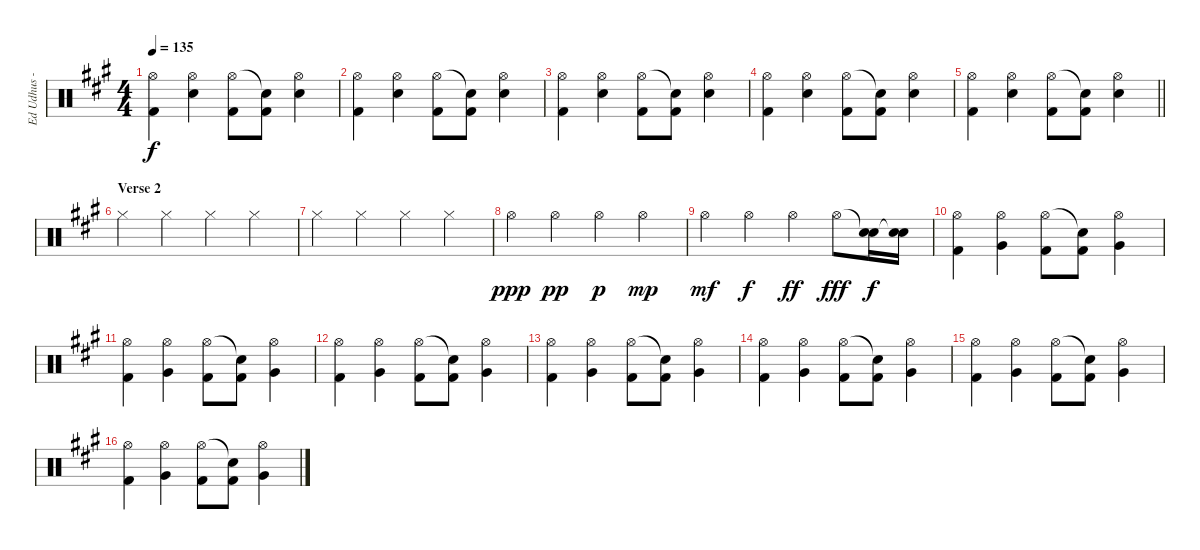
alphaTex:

\track ("Ed Udhus - Drums" "Ed Udhus -") {instrument percussion bank 127}
\staff {score}
\articulation defaults
\ts (4 4)
\tempo 135
\clef neutral
\ks a
("Hi-Hat (open)" "Kick (hit) 2").4{dy f} ("Hi-Hat (open)" "Snare (hit) 2").4 ("Hi-Hat (open)" "Kick (hit) 2").8 ("Snare (hit)"{t} "Kick (hit) 2").8 ("Hi-Hat (open)" "Snare (hit) 2").4 |
("Hi-Hat (open)" "Kick (hit) 2").4 ("Hi-Hat (open)" "Snare (hit) 2").4 ("Hi-Hat (open)" "Kick (hit) 2").8 ("Snare (hit)"{t} "Kick (hit) 2").8 ("Hi-Hat (open)" "Snare (hit) 2").4 |
("Hi-Hat (open)" "Kick (hit) 2").4 ("Hi-Hat (open)" "Snare (hit) 2").4 ("Hi-Hat (open)" "Kick (hit) 2").8 ("Snare (hit)"{t} "Kick (hit) 2").8 ("Hi-Hat (open)" "Snare (hit) 2").4 |
("Hi-Hat (open)" "Kick (hit) 2").4 ("Hi-Hat (open)" "Snare (hit) 2").4 ("Hi-Hat (open)" "Kick (hit) 2").8 ("Snare (hit)"{t} "Kick (hit) 2").8 ("Hi-Hat (open)" "Snare (hit) 2").4 |
\barLineRight lightlight
("Hi-Hat (open)" "Kick (hit) 2").4 ("Hi-Hat (open)" "Snare (hit) 2").4 ("Hi-Hat (open)" "Kick (hit) 2").8 ("Snare (hit)"{t} "Kick (hit) 2").8 ("Hi-Hat (open)" "Snare (hit) 2").4 |
\section ("" "Verse 2")
"Hi-Hat (closed)".4 "Hi-Hat (closed)".4 "Hi-Hat (closed)".4 "Hi-Hat (closed)".4 |
"Hi-Hat (closed)".4 "Hi-Hat (closed)".4 "Hi-Hat (closed)".4 "Hi-Hat (closed)".4 |
"Hi-Hat (open)".4{dy ppp} "Hi-Hat (open)".4{dy pp} "Hi-Hat (open)".4{dy p} "Hi-Hat (open)".4{dy mp} |
"Hi-Hat (open)".4{dy mf} "Hi-Hat (open)".4{dy f} "Hi-Hat (open)".4{dy ff} "Hi-Hat (open)".8{dy fff} ("Snare (hit)"{t} "Snare (hit) 2").16{dy f} ("Snare (hit)"{t} "Snare (hit) 2").16 |
("Hi-Hat (open)" "Kick (hit) 2").4 ("Hi-Hat (open)" "Very Low Tom (hit)").4 ("Hi-Hat (open)" "Kick (hit) 2").8 ("Snare (hit)"{t} "Kick (hit) 2").8 ("Hi-Hat (open)" "Very Low Tom (hit)").4 |
("Hi-Hat (open)" "Kick (hit) 2").4 ("Hi-Hat (open)" "Very Low Tom (hit)").4 ("Hi-Hat (open)" "Kick (hit) 2").8 ("Snare (hit)"{t} "Kick (hit) 2").8 ("Hi-Hat (open)" "Very Low Tom (hit)").4 |
("Hi-Hat (open)" "Kick (hit) 2").4 ("Hi-Hat (open)" "Very Low Tom (hit)").4 ("Hi-Hat (open)" "Kick (hit) 2").8 ("Snare (hit)"{t} "Kick (hit) 2").8 ("Hi-Hat (open)" "Very Low Tom (hit)").4 |
("Hi-Hat (open)" "Kick (hit) 2").4 ("Hi-Hat (open)" "Very Low Tom (hit)").4 ("Hi-Hat (open)" "Kick (hit) 2").8 ("Snare (hit)"{t} "Kick (hit) 2").8 ("Hi-Hat (open)" "Very Low Tom (hit)").4 |
("Hi-Hat (open)" "Kick (hit) 2").4 ("Hi-Hat (open)" "Very Low Tom (hit)").4 ("Hi-Hat (open)" "Kick (hit) 2").8 ("Snare (hit)"{t} "Kick (hit) 2").8 ("Hi-Hat (open)" "Very Low Tom (hit)").4 |
("Hi-Hat (open)" "Kick (hit) 2").4 ("Hi-Hat (open)" "Very Low Tom (hit)").4 ("Hi-Hat (open)" "Kick (hit) 2").8 ("Snare (hit)"{t} "Kick (hit) 2").8 ("Hi-Hat (open)" "Very Low Tom (hit)").4 |
("Hi-Hat (open)" "Kick (hit) 2").4 ("Hi-Hat (open)" "Very Low Tom (hit)").4 ("Hi-Hat (open)" "Kick (hit) 2").8 ("Snare (hit)"{t} "Kick (hit) 2").8 ("Hi-Hat (open)" "Very Low Tom (hit)").4
